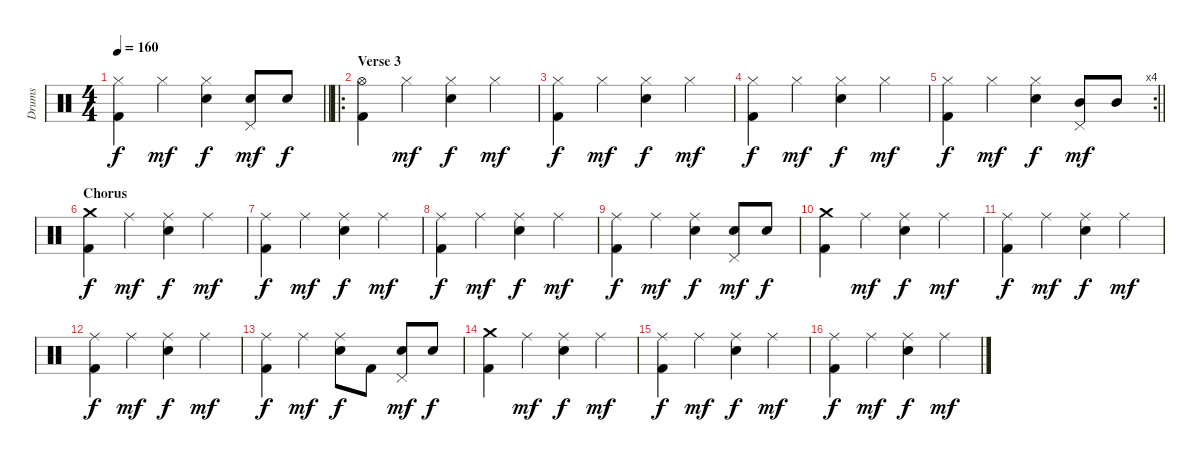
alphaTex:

\track ("Drums" "Drums") {instrument percussion}
\staff {score}
\articulation defaults
\ts (4 4)
\tempo 160
\clef neutral
\barLineRight lightlight
\ks c
("Hi-Hat (closed)" "Kick (hit) 2").4{dy f} "Hi-Hat (closed)".4{dy mf} ("Hi-Hat (closed)" "Snare (hit) 2").4{dy f} ("Pedal Hi-Hat (hit)" "Snare (hit) 2").8{dy mf} "Snare (hit) 2".8{dy f} |
\ro
\section ("" "Verse 3")
("Hi-Hat (open)" "Kick (hit) 2").4 "Hi-Hat (closed)".4{dy mf} ("Hi-Hat (closed)" "Snare (hit) 2").4{dy f} "Hi-Hat (closed)".4{dy mf} |
("Hi-Hat (closed)" "Kick (hit) 2").4{dy f} "Hi-Hat (closed)".4{dy mf} ("Hi-Hat (closed)" "Snare (hit) 2").4{dy f} "Hi-Hat (closed)".4{dy mf} |
("Hi-Hat (closed)" "Kick (hit) 2").4{dy f} "Hi-Hat (closed)".4{dy mf} ("Hi-Hat (closed)" "Snare (hit) 2").4{dy f} "Hi-Hat (closed)".4{dy mf} |
\rc 4
\barLineRight lightlight
("Hi-Hat (closed)" "Kick (hit) 2").4{dy f} "Hi-Hat (closed)".4{dy mf} ("Hi-Hat (closed)" "Snare (hit) 2").4{dy f} ("Pedal Hi-Hat (hit)" "Mid Tom (hit)").8{dy mf} "Mid Tom (hit)".8 |
\section ("" "Chorus")
("Crash medium (hit)" "Kick (hit) 2").4{dy f} "Ride (middle)".4{dy mf} ("Ride (middle)" "Snare (hit) 2").4{dy f} "Ride (middle)".4{dy mf} |
("Ride (middle)" "Kick (hit) 2").4{dy f} "Ride (middle)".4{dy mf} ("Ride (middle)" "Snare (hit) 2").4{dy f} "Ride (middle)".4{dy mf} |
("Ride (middle)" "Kick (hit) 2").4{dy f} "Ride (middle)".4{dy mf} ("Ride (middle)" "Snare (hit) 2").4{dy f} "Ride (middle)".4{dy mf} |
("Ride (middle)" "Kick (hit) 2").4{dy f} "Ride (middle)".4{dy mf} ("Ride (middle)" "Snare (hit) 2").4{dy f} ("Pedal Hi-Hat (hit)" "Snare (hit) 2").8{dy mf} "Snare (hit) 2".8{dy f} |
("Crash medium (hit)" "Kick (hit) 2").4 "Ride (middle)".4{dy mf} ("Ride (middle)" "Snare (hit) 2").4{dy f} "Ride (middle)".4{dy mf} |
("Ride (middle)" "Kick (hit) 2").4{dy f} "Ride (middle)".4{dy mf} ("Ride (middle)" "Snare (hit) 2").4{dy f} "Ride (middle)".4{dy mf} |
("Ride (middle)" "Kick (hit) 2").4{dy f} "Ride (middle)".4{dy mf} ("Ride (middle)" "Snare (hit) 2").4{dy f} "Ride (middle)".4{dy mf} |
("Ride (middle)" "Kick (hit) 2").4{dy f} "Ride (middle)".4{dy mf} ("Ride (middle)" "Snare (hit) 2").8{dy f} "Kick (hit) 2".8 ("Pedal Hi-Hat (hit)" "Snare (hit) 2").8{dy mf} "Snare (hit) 2".8{dy f} |
("Crash medium (hit)" "Kick (hit) 2").4 "Ride (middle)".4{dy mf} ("Ride (middle)" "Snare (hit) 2").4{dy f} "Ride (middle)".4{dy mf} |
("Ride (middle)" "Kick (hit) 2").4{dy f} "Ride (middle)".4{dy mf} ("Ride (middle)" "Snare (hit) 2").4{dy f} "Ride (middle)".4{dy mf} |
("Ride (middle)" "Kick (hit) 2").4{dy f} "Ride (middle)".4{dy mf} ("Ride (middle)" "Snare (hit) 2").4{dy f} "Ride (middle)".4{dy mf}
